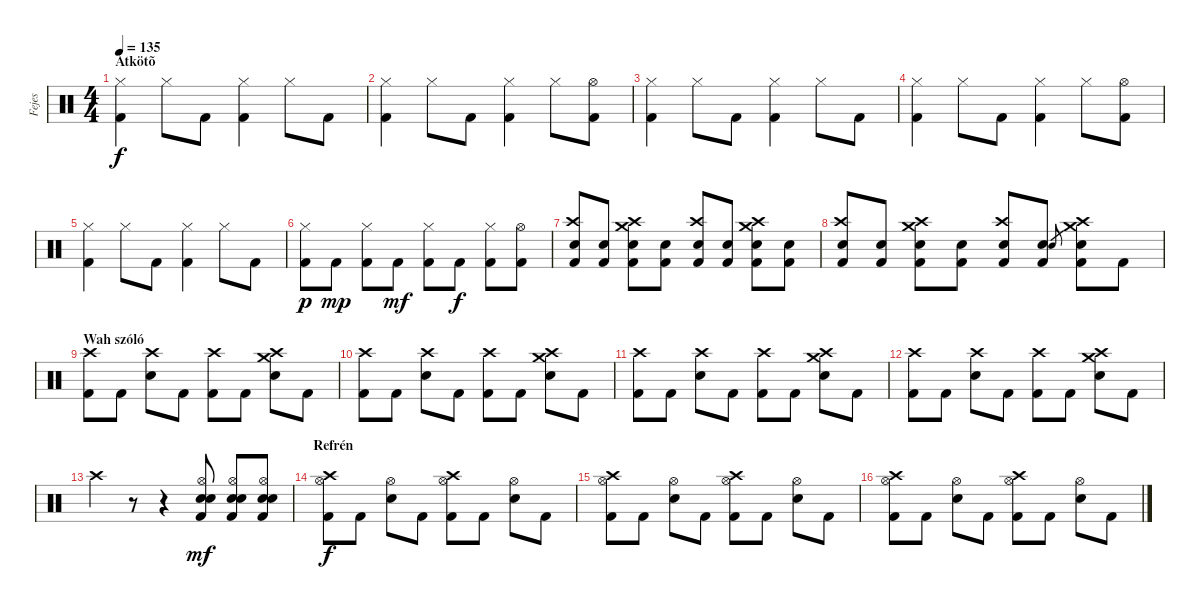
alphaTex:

\track ("Fejes" "Fejes") {instrument percussion}
\staff {score}
\articulation defaults
\ts (4 4)
\section ("" "Átkötõ")
\tempo 135
\clef neutral
\ks c
("Hi-Hat (closed)" "Kick (hit) 2").4{dy f} "Hi-Hat (closed)".8 "Kick (hit) 2".8 ("Hi-Hat (closed)" "Kick (hit) 2").4 "Hi-Hat (closed)".8 "Kick (hit) 2".8 |
("Hi-Hat (closed)" "Kick (hit) 2").4 "Hi-Hat (closed)".8 "Kick (hit) 2".8 ("Hi-Hat (closed)" "Kick (hit) 2").4 "Hi-Hat (closed)".8 ("Hi-Hat (open)" "Kick (hit) 2").8 |
("Hi-Hat (closed)" "Kick (hit) 2").4 "Hi-Hat (closed)".8 "Kick (hit) 2".8 ("Hi-Hat (closed)" "Kick (hit) 2").4 "Hi-Hat (closed)".8 "Kick (hit) 2".8 |
("Hi-Hat (closed)" "Kick (hit) 2").4 "Hi-Hat (closed)".8 "Kick (hit) 2".8 ("Hi-Hat (closed)" "Kick (hit) 2").4 "Hi-Hat (closed)".8 ("Hi-Hat (open)" "Kick (hit) 2").8 |
("Hi-Hat (closed)" "Kick (hit) 2").4 "Hi-Hat (closed)".8 "Kick (hit) 2".8 ("Hi-Hat (closed)" "Kick (hit) 2").4 "Hi-Hat (closed)".8 "Kick (hit) 2".8 |
("Hi-Hat (closed)" "Kick (hit) 2").8{dy p} "Kick (hit) 2".8{dy mp} ("Hi-Hat (closed)" "Kick (hit) 2").8 "Kick (hit) 2".8{dy mf} ("Hi-Hat (closed)" "Kick (hit) 2").8 "Kick (hit) 2".8{dy f} ("Hi-Hat (closed)" "Kick (hit) 2").8 ("Hi-Hat (open)" "Kick (hit) 2").8 |
("Crash high (hit)" "Snare (hit) 2" "Kick (hit) 2").8 ("Snare (hit) 2" "Kick (hit) 2").8 ("Crash high (hit)" "Crash medium (hit)" "Snare (hit) 2" "Kick (hit) 2").8 ("Snare (hit) 2" "Kick (hit) 2").8 ("Crash high (hit)" "Snare (hit) 2" "Kick (hit) 2").8 ("Snare (hit) 2" "Kick (hit) 2").8 ("Crash high (hit)" "Crash medium (hit)" "Snare (hit) 2" "Kick (hit) 2").8 ("Snare (hit) 2" "Kick (hit) 2").8 |
("Crash high (hit)" "Snare (hit) 2" "Kick (hit) 2").8 ("Snare (hit) 2" "Kick (hit) 2").8 ("Crash high (hit)" "Crash medium (hit)" "Snare (hit) 2" "Kick (hit) 2").8 ("Snare (hit) 2" "Kick (hit) 2").8 ("Crash high (hit)" "Snare (hit) 2" "Kick (hit) 2").8 ("Snare (hit) 2" "Kick (hit) 2").8 "Snare (hit) 2".8{gr} ("Crash high (hit)" "Crash medium (hit)" "Snare (hit) 2" "Kick (hit) 2").8 "Kick (hit) 2".8 |
\section ("" "Wah szóló")
("Crash high (hit)" "Kick (hit) 2").8 "Kick (hit) 2".8 ("Crash high (hit)" "Snare (hit) 2").8 "Kick (hit) 2".8 ("Crash high (hit)" "Kick (hit) 2").8 "Kick (hit) 2".8 ("Crash high (hit)" "Crash medium (hit)" "Snare (hit) 2").8 "Kick (hit) 2".8 |
("Crash high (hit)" "Kick (hit) 2").8 "Kick (hit) 2".8 ("Crash high (hit)" "Snare (hit) 2").8 "Kick (hit) 2".8 ("Crash high (hit)" "Kick (hit) 2").8 "Kick (hit) 2".8 ("Crash high (hit)" "Crash medium (hit)" "Snare (hit) 2").8 "Kick (hit) 2".8 |
("Crash high (hit)" "Kick (hit) 2").8 "Kick (hit) 2".8 ("Crash high (hit)" "Snare (hit) 2").8 "Kick (hit) 2".8 ("Crash high (hit)" "Kick (hit) 2").8 "Kick (hit) 2".8 ("Crash high (hit)" "Crash medium (hit)" "Snare (hit) 2").8 "Kick (hit) 2".8 |
("Crash high (hit)" "Kick (hit) 2").8 "Kick (hit) 2".8 ("Crash high (hit)" "Snare (hit) 2").8 "Kick (hit) 2".8 ("Crash high (hit)" "Kick (hit) 2").8 "Kick (hit) 2".8 ("Crash high (hit)" "Crash medium (hit)" "Snare (hit) 2").8 "Kick (hit) 2".8 |
"Crash high (hit)".4 r.8 r.4 ("Hi-Hat (open)" "Electric Snare (hit)" "Snare (hit) 2" "Kick (hit) 2").8{dy mf} ("Hi-Hat (open)" "Electric Snare (hit)" "Snare (hit) 2" "Kick (hit) 2").8 ("Hi-Hat (open)" "Electric Snare (hit)" "Snare (hit) 2" "Kick (hit) 2").8 |
\section ("" "Refrén")
("Crash high (hit)" "Hi-Hat (open)" "Kick (hit) 2").8{dy f} "Kick (hit) 2".8 ("Hi-Hat (open)" "Electric Snare (hit)").8 "Kick (hit) 2".8 ("Crash high (hit)" "Hi-Hat (open)" "Kick (hit) 2").8 "Kick (hit) 2".8 ("Hi-Hat (open)" "Electric Snare (hit)").8 "Kick (hit) 2".8 |
("Crash high (hit)" "Hi-Hat (open)" "Kick (hit) 2").8 "Kick (hit) 2".8 ("Hi-Hat (open)" "Electric Snare (hit)").8 "Kick (hit) 2".8 ("Crash high (hit)" "Hi-Hat (open)" "Kick (hit) 2").8 "Kick (hit) 2".8 ("Hi-Hat (open)" "Electric Snare (hit)").8 "Kick (hit) 2".8 |
("Crash high (hit)" "Hi-Hat (open)" "Kick (hit) 2").8 "Kick (hit) 2".8 ("Hi-Hat (open)" "Electric Snare (hit)").8 "Kick (hit) 2".8 ("Crash high (hit)" "Hi-Hat (open)" "Kick (hit) 2").8 "Kick (hit) 2".8 ("Hi-Hat (open)" "Electric Snare (hit)").8 "Kick (hit) 2".8
